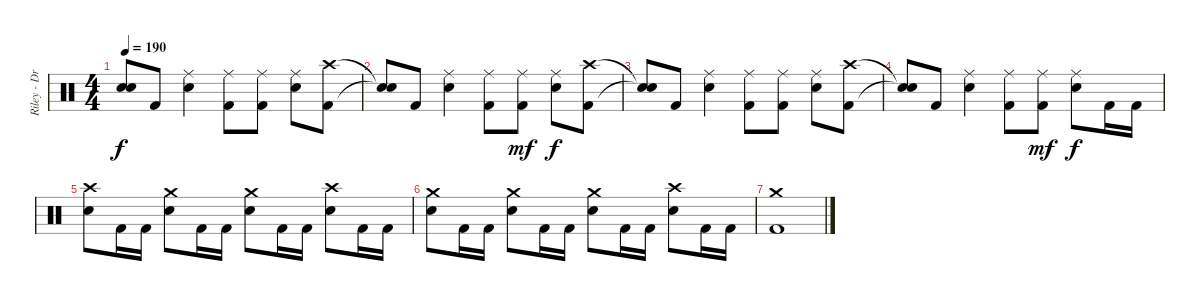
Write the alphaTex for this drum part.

\track ("Riley - Drums" "Riley - Dr") {instrument percussion}
\staff {score}
\articulation defaults
\ts (4 4)
\tempo 190
\clef neutral
\ks c
("Snare (hit)"{t} "Snare (hit)"{t}).8{dy f} "Kick (hit) 2".8 ("Electric Snare (hit)" "Ride (middle)").4 ("Kick (hit) 2" "Ride (middle)").8 ("Kick (hit) 2" "Ride (middle)").8 ("Electric Snare (hit)" "Ride (middle)").8 ("Kick (hit) 2" "Crash high (hit)").8 |
("Snare (hit)"{t} "Snare (hit)"{t}).8 "Kick (hit) 2".8 ("Electric Snare (hit)" "Ride (middle)").4 ("Kick (hit) 2" "Ride (middle)").8 ("Kick (hit) 2" "Ride (middle)").8{dy mf} ("Electric Snare (hit)" "Ride (middle)").8{dy f} ("Kick (hit) 2" "Crash high (hit)").8 |
("Snare (hit)"{t} "Snare (hit)"{t}).8 "Kick (hit) 2".8 ("Electric Snare (hit)" "Ride (middle)").4 ("Kick (hit) 2" "Ride (middle)").8 ("Kick (hit) 2" "Ride (middle)").8 ("Electric Snare (hit)" "Ride (middle)").8 ("Kick (hit) 2" "Crash high (hit)").8 |
("Snare (hit)"{t} "Snare (hit)"{t}).8 "Kick (hit) 2".8 ("Electric Snare (hit)" "Ride (middle)").4 ("Kick (hit) 2" "Ride (middle)").8 ("Kick (hit) 2" "Ride (middle)").8{dy mf} ("Electric Snare (hit)" "Ride (middle)").8{dy f} "Kick (hit) 2".16 "Kick (hit) 2".16 |
("Electric Snare (hit)" "Crash high (hit)").8 "Kick (hit) 2".16 "Kick (hit) 2".16 ("Electric Snare (hit)" "Crash medium (hit)").8 "Kick (hit) 2".16 "Kick (hit) 2".16 ("Electric Snare (hit)" "Crash medium (hit)").8 "Kick (hit) 2".16 "Kick (hit) 2".16 ("Electric Snare (hit)" "Crash high (hit)").8 "Kick (hit) 2".16 "Kick (hit) 2".16 |
("Electric Snare (hit)" "Crash medium (hit)").8 "Kick (hit) 2".16 "Kick (hit) 2".16 ("Electric Snare (hit)" "Crash medium (hit)").8 "Kick (hit) 2".16 "Kick (hit) 2".16 ("Electric Snare (hit)" "Crash medium (hit)").8 "Kick (hit) 2".16 "Kick (hit) 2".16 ("Electric Snare (hit)" "Crash high (hit)").8 "Kick (hit) 2".16 "Kick (hit) 2".16 |
("Kick (hit) 2" "Crash medium (hit)").1
